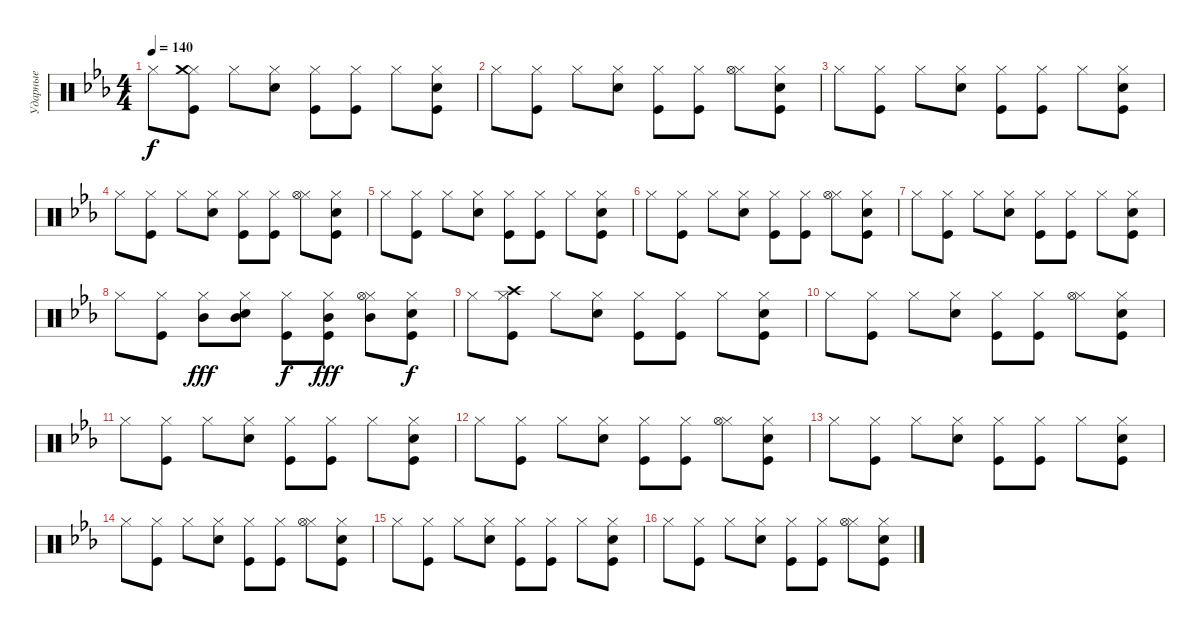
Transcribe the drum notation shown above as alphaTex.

\track ("Ударные" "Ударные") {instrument percussion}
\staff {score}
\articulation defaults
\ts (4 4)
\tempo 140
\clef neutral
\ks cminor "Hi-Hat (closed)".8{dy f}
("Hi-Hat (closed)" "Crash medium (hit)" "Kick (hit)").8 "Hi-Hat (closed)".8 ("Hi-Hat (closed)" "Snare (hit) 2").8 ("Hi-Hat (closed)" "Kick (hit)").8 ("Hi-Hat (closed)" "Kick (hit)").8 "Hi-Hat (closed)".8 ("Hi-Hat (closed)" "Kick (hit)" "Snare (hit) 2").8 |
"Hi-Hat (closed)".8 ("Hi-Hat (closed)" "Kick (hit)").8 "Hi-Hat (closed)".8 ("Hi-Hat (closed)" "Snare (hit) 2").8 ("Hi-Hat (closed)" "Kick (hit)").8 ("Hi-Hat (closed)" "Kick (hit)").8 ("Hi-Hat (closed)" "Hi-Hat (open)").8 ("Hi-Hat (closed)" "Kick (hit)" "Snare (hit) 2").8 |
"Hi-Hat (closed)".8 ("Hi-Hat (closed)" "Kick (hit)").8 "Hi-Hat (closed)".8 ("Hi-Hat (closed)" "Snare (hit) 2").8 ("Hi-Hat (closed)" "Kick (hit)").8 ("Hi-Hat (closed)" "Kick (hit)").8 "Hi-Hat (closed)".8 ("Hi-Hat (closed)" "Kick (hit)" "Snare (hit) 2").8 |
"Hi-Hat (closed)".8 ("Hi-Hat (closed)" "Kick (hit)").8 "Hi-Hat (closed)".8 ("Hi-Hat (closed)" "Snare (hit) 2").8 ("Hi-Hat (closed)" "Kick (hit)").8 ("Hi-Hat (closed)" "Kick (hit)").8 ("Hi-Hat (closed)" "Hi-Hat (open)").8 ("Hi-Hat (closed)" "Kick (hit)" "Snare (hit) 2").8 |
"Hi-Hat (closed)".8 ("Hi-Hat (closed)" "Kick (hit)").8 "Hi-Hat (closed)".8 ("Hi-Hat (closed)" "Snare (hit) 2").8 ("Hi-Hat (closed)" "Kick (hit)").8 ("Hi-Hat (closed)" "Kick (hit)").8 "Hi-Hat (closed)".8 ("Hi-Hat (closed)" "Kick (hit)" "Snare (hit) 2").8 |
"Hi-Hat (closed)".8 ("Hi-Hat (closed)" "Kick (hit)").8 "Hi-Hat (closed)".8 ("Hi-Hat (closed)" "Snare (hit) 2").8 ("Hi-Hat (closed)" "Kick (hit)").8 ("Hi-Hat (closed)" "Kick (hit)").8 ("Hi-Hat (closed)" "Hi-Hat (open)").8 ("Hi-Hat (closed)" "Kick (hit)" "Snare (hit) 2").8 |
"Hi-Hat (closed)".8 ("Hi-Hat (closed)" "Kick (hit)").8 "Hi-Hat (closed)".8 ("Hi-Hat (closed)" "Snare (hit) 2").8 ("Hi-Hat (closed)" "Kick (hit)").8 ("Hi-Hat (closed)" "Kick (hit)").8 "Hi-Hat (closed)".8 ("Hi-Hat (closed)" "Kick (hit)" "Snare (hit) 2").8 |
"Hi-Hat (closed)".8 ("Hi-Hat (closed)" "Kick (hit)").8 ("Hi-Hat (closed)" "Mid Tom (hit)").8{dy fff} ("Hi-Hat (closed)" "Mid Tom (hit)" "Snare (hit) 2").8 ("Hi-Hat (closed)" "Kick (hit)").8{dy f} ("Hi-Hat (closed)" "Kick (hit)" "Mid Tom (hit)").8{dy fff} ("Hi-Hat (closed)" "Hi-Hat (open)" "Mid Tom (hit)").8 ("Hi-Hat (closed)" "Kick (hit)" "Snare (hit) 2").8{dy f} |
"Hi-Hat (closed)".8 ("Hi-Hat (closed)" "Crash high (hit)" "Kick (hit)").8 "Hi-Hat (closed)".8 ("Hi-Hat (closed)" "Snare (hit) 2").8 ("Hi-Hat (closed)" "Kick (hit)").8 ("Hi-Hat (closed)" "Kick (hit)").8 "Hi-Hat (closed)".8 ("Hi-Hat (closed)" "Kick (hit)" "Snare (hit) 2").8 |
"Hi-Hat (closed)".8 ("Hi-Hat (closed)" "Kick (hit)").8 "Hi-Hat (closed)".8 ("Hi-Hat (closed)" "Snare (hit) 2").8 ("Hi-Hat (closed)" "Kick (hit)").8 ("Hi-Hat (closed)" "Kick (hit)").8 ("Hi-Hat (closed)" "Hi-Hat (open)").8 ("Hi-Hat (closed)" "Kick (hit)" "Snare (hit) 2").8 |
"Hi-Hat (closed)".8 ("Hi-Hat (closed)" "Kick (hit)").8 "Hi-Hat (closed)".8 ("Hi-Hat (closed)" "Snare (hit) 2").8 ("Hi-Hat (closed)" "Kick (hit)").8 ("Hi-Hat (closed)" "Kick (hit)").8 "Hi-Hat (closed)".8 ("Hi-Hat (closed)" "Kick (hit)" "Snare (hit) 2").8 |
"Hi-Hat (closed)".8 ("Hi-Hat (closed)" "Kick (hit)").8 "Hi-Hat (closed)".8 ("Hi-Hat (closed)" "Snare (hit) 2").8 ("Hi-Hat (closed)" "Kick (hit)").8 ("Hi-Hat (closed)" "Kick (hit)").8 ("Hi-Hat (closed)" "Hi-Hat (open)").8 ("Hi-Hat (closed)" "Kick (hit)" "Snare (hit) 2").8 |
"Hi-Hat (closed)".8 ("Hi-Hat (closed)" "Kick (hit)").8 "Hi-Hat (closed)".8 ("Hi-Hat (closed)" "Snare (hit) 2").8 ("Hi-Hat (closed)" "Kick (hit)").8 ("Hi-Hat (closed)" "Kick (hit)").8 "Hi-Hat (closed)".8 ("Hi-Hat (closed)" "Kick (hit)" "Snare (hit) 2").8 |
"Hi-Hat (closed)".8 ("Hi-Hat (closed)" "Kick (hit)").8 "Hi-Hat (closed)".8 ("Hi-Hat (closed)" "Snare (hit) 2").8 ("Hi-Hat (closed)" "Kick (hit)").8 ("Hi-Hat (closed)" "Kick (hit)").8 ("Hi-Hat (closed)" "Hi-Hat (open)").8 ("Hi-Hat (closed)" "Kick (hit)" "Snare (hit) 2").8 |
"Hi-Hat (closed)".8 ("Hi-Hat (closed)" "Kick (hit)").8 "Hi-Hat (closed)".8 ("Hi-Hat (closed)" "Snare (hit) 2").8 ("Hi-Hat (closed)" "Kick (hit)").8 ("Hi-Hat (closed)" "Kick (hit)").8 "Hi-Hat (closed)".8 ("Hi-Hat (closed)" "Kick (hit)" "Snare (hit) 2").8 |
"Hi-Hat (closed)".8 ("Hi-Hat (closed)" "Kick (hit)").8 "Hi-Hat (closed)".8 ("Hi-Hat (closed)" "Snare (hit) 2").8 ("Hi-Hat (closed)" "Kick (hit)").8 ("Hi-Hat (closed)" "Kick (hit)").8 ("Hi-Hat (closed)" "Hi-Hat (open)").8 ("Hi-Hat (closed)" "Kick (hit)" "Snare (hit) 2").8
